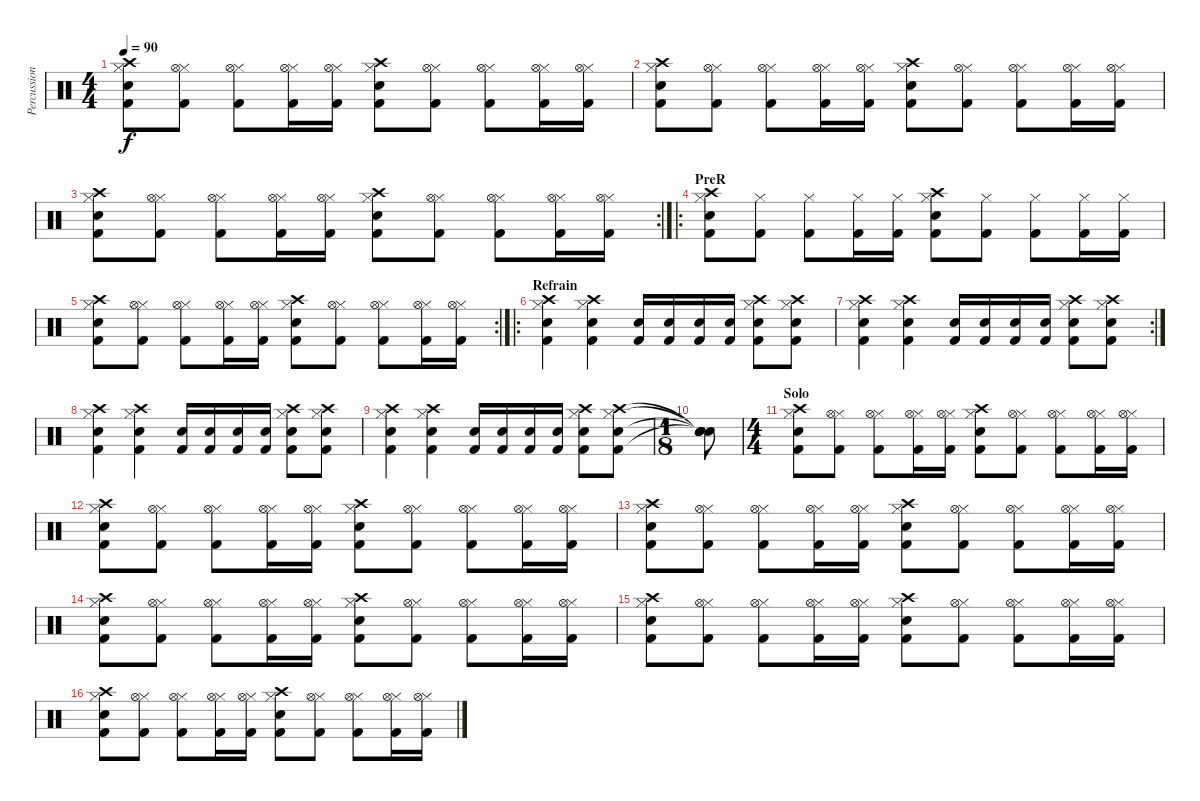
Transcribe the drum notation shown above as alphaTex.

\track ("Percussions" "Percussion") {instrument percussion}
\staff {score}
\articulation defaults
\ts (4 4)
\tempo 90
\clef neutral
\ks c
("Kick (hit) 2" "Hi-Hat (closed)" "Snare (hit) 2" "Crash high (hit)").8{dy f} ("Kick (hit) 2" "Hi-Hat (closed)" "Hi-Hat (open)").8 ("Kick (hit) 2" "Hi-Hat (closed)" "Hi-Hat (open)").8 ("Kick (hit) 2" "Hi-Hat (closed)" "Hi-Hat (open)").16 ("Kick (hit) 2" "Hi-Hat (closed)" "Hi-Hat (open)").16 ("Kick (hit) 2" "Hi-Hat (closed)" "Snare (hit) 2" "Crash high (hit)").8 ("Kick (hit) 2" "Hi-Hat (closed)" "Hi-Hat (open)").8 ("Kick (hit) 2" "Hi-Hat (closed)" "Hi-Hat (open)").8 ("Hi-Hat (closed)" "Kick (hit) 2" "Hi-Hat (open)").16 ("Hi-Hat (closed)" "Kick (hit) 2" "Hi-Hat (open)").16 |
("Kick (hit) 2" "Hi-Hat (closed)" "Snare (hit) 2" "Crash high (hit)").8 ("Kick (hit) 2" "Hi-Hat (closed)" "Hi-Hat (open)").8 ("Kick (hit) 2" "Hi-Hat (closed)" "Hi-Hat (open)").8 ("Kick (hit) 2" "Hi-Hat (closed)" "Hi-Hat (open)").16 ("Kick (hit) 2" "Hi-Hat (closed)" "Hi-Hat (open)").16 ("Kick (hit) 2" "Hi-Hat (closed)" "Snare (hit) 2" "Crash high (hit)").8 ("Kick (hit) 2" "Hi-Hat (closed)" "Hi-Hat (open)").8 ("Kick (hit) 2" "Hi-Hat (closed)" "Hi-Hat (open)").8 ("Hi-Hat (closed)" "Kick (hit) 2" "Hi-Hat (open)").16 ("Hi-Hat (closed)" "Kick (hit) 2" "Hi-Hat (open)").16 |
\rc 2
("Kick (hit) 2" "Hi-Hat (closed)" "Snare (hit) 2" "Crash high (hit)").8 ("Kick (hit) 2" "Hi-Hat (closed)" "Hi-Hat (open)").8 ("Kick (hit) 2" "Hi-Hat (closed)" "Hi-Hat (open)").8 ("Kick (hit) 2" "Hi-Hat (closed)" "Hi-Hat (open)").16 ("Kick (hit) 2" "Hi-Hat (closed)" "Hi-Hat (open)").16 ("Kick (hit) 2" "Hi-Hat (closed)" "Snare (hit) 2" "Crash high (hit)").8 ("Kick (hit) 2" "Hi-Hat (closed)" "Hi-Hat (open)").8 ("Kick (hit) 2" "Hi-Hat (closed)" "Hi-Hat (open)").8 ("Hi-Hat (closed)" "Kick (hit) 2" "Hi-Hat (open)").16 ("Hi-Hat (closed)" "Kick (hit) 2" "Hi-Hat (open)").16 |
\ro
\section ("" "PreR")
("Kick (hit) 2" "Hi-Hat (closed)" "Snare (hit) 2" "Crash high (hit)").8 ("Kick (hit) 2" "Hi-Hat (closed)").8 ("Kick (hit) 2" "Hi-Hat (closed)").8 ("Kick (hit) 2" "Hi-Hat (closed)").16 ("Kick (hit) 2" "Hi-Hat (closed)").16 ("Kick (hit) 2" "Hi-Hat (closed)" "Snare (hit) 2" "Crash high (hit)").8 ("Kick (hit) 2" "Hi-Hat (closed)").8 ("Kick (hit) 2" "Hi-Hat (closed)").8 ("Hi-Hat (closed)" "Kick (hit) 2").16 ("Hi-Hat (closed)" "Kick (hit) 2").16 |
\rc 2
("Kick (hit) 2" "Hi-Hat (closed)" "Snare (hit) 2" "Crash high (hit)").8 ("Kick (hit) 2" "Hi-Hat (closed)" "Hi-Hat (open)").8 ("Kick (hit) 2" "Hi-Hat (closed)" "Hi-Hat (open)").8 ("Kick (hit) 2" "Hi-Hat (closed)" "Hi-Hat (open)").16 ("Kick (hit) 2" "Hi-Hat (closed)" "Hi-Hat (open)").16 ("Kick (hit) 2" "Hi-Hat (closed)" "Snare (hit) 2" "Crash high (hit)").8 ("Kick (hit) 2" "Hi-Hat (closed)" "Hi-Hat (open)").8 ("Kick (hit) 2" "Hi-Hat (closed)" "Hi-Hat (open)").8 ("Hi-Hat (closed)" "Kick (hit) 2" "Hi-Hat (open)").16 ("Hi-Hat (closed)" "Kick (hit) 2" "Hi-Hat (open)").16 |
\ro
\section ("" "Refrain")
("Kick (hit) 2" "Hi-Hat (closed)" "Snare (hit) 2" "Crash high (hit)").4 ("Kick (hit) 2" "Hi-Hat (closed)" "Snare (hit) 2" "Crash high (hit)").4 ("Kick (hit) 2" "Snare (hit) 2").16 ("Kick (hit) 2" "Snare (hit) 2").16 ("Kick (hit) 2" "Snare (hit) 2").16 ("Kick (hit) 2" "Snare (hit) 2").16 ("Kick (hit) 2" "Hi-Hat (closed)" "Snare (hit) 2" "Crash high (hit)").8 ("Kick (hit) 2" "Hi-Hat (closed)" "Snare (hit) 2" "Crash high (hit)").8 |
\rc 2
("Kick (hit) 2" "Hi-Hat (closed)" "Snare (hit) 2" "Crash high (hit)").4 ("Kick (hit) 2" "Hi-Hat (closed)" "Snare (hit) 2" "Crash high (hit)").4 ("Kick (hit) 2" "Snare (hit) 2").16 ("Kick (hit) 2" "Snare (hit) 2").16 ("Kick (hit) 2" "Snare (hit) 2").16 ("Kick (hit) 2" "Snare (hit) 2").16 ("Kick (hit) 2" "Hi-Hat (closed)" "Snare (hit) 2" "Crash high (hit)").8 ("Kick (hit) 2" "Hi-Hat (closed)" "Snare (hit) 2" "Crash high (hit)").8 |
("Kick (hit) 2" "Hi-Hat (closed)" "Snare (hit) 2" "Crash high (hit)").4 ("Kick (hit) 2" "Hi-Hat (closed)" "Snare (hit) 2" "Crash high (hit)").4 ("Kick (hit) 2" "Snare (hit) 2").16 ("Kick (hit) 2" "Snare (hit) 2").16 ("Kick (hit) 2" "Snare (hit) 2").16 ("Kick (hit) 2" "Snare (hit) 2").16 ("Kick (hit) 2" "Hi-Hat (closed)" "Snare (hit) 2" "Crash high (hit)").8 ("Kick (hit) 2" "Hi-Hat (closed)" "Snare (hit) 2" "Crash high (hit)").8 |
("Kick (hit) 2" "Hi-Hat (closed)" "Snare (hit) 2" "Crash high (hit)").4 ("Kick (hit) 2" "Hi-Hat (closed)" "Snare (hit) 2" "Crash high (hit)").4 ("Kick (hit) 2" "Snare (hit) 2").16 ("Kick (hit) 2" "Snare (hit) 2").16 ("Kick (hit) 2" "Snare (hit) 2").16 ("Kick (hit) 2" "Snare (hit) 2").16 ("Kick (hit) 2" "Hi-Hat (closed)" "Snare (hit) 2" "Crash high (hit)").8 ("Kick (hit) 2" "Hi-Hat (closed)" "Snare (hit) 2" "Crash high (hit)").8 |
\ts (1 8)
("Snare (hit)"{t} "Snare (hit)"{t} "Snare (hit)"{t} "Snare (hit)"{t}).8 |
\ts (4 4)
\section ("" "Solo")
("Kick (hit) 2" "Hi-Hat (closed)" "Snare (hit) 2" "Crash high (hit)").8 ("Kick (hit) 2" "Hi-Hat (closed)" "Hi-Hat (open)").8 ("Kick (hit) 2" "Hi-Hat (closed)" "Hi-Hat (open)").8 ("Kick (hit) 2" "Hi-Hat (closed)" "Hi-Hat (open)").16 ("Kick (hit) 2" "Hi-Hat (closed)" "Hi-Hat (open)").16 ("Kick (hit) 2" "Hi-Hat (closed)" "Snare (hit) 2" "Crash high (hit)").8 ("Kick (hit) 2" "Hi-Hat (closed)" "Hi-Hat (open)").8 ("Kick (hit) 2" "Hi-Hat (closed)" "Hi-Hat (open)").8 ("Hi-Hat (closed)" "Kick (hit) 2" "Hi-Hat (open)").16 ("Hi-Hat (closed)" "Kick (hit) 2" "Hi-Hat (open)").16 |
("Kick (hit) 2" "Hi-Hat (closed)" "Snare (hit) 2" "Crash high (hit)").8 ("Kick (hit) 2" "Hi-Hat (closed)" "Hi-Hat (open)").8 ("Kick (hit) 2" "Hi-Hat (closed)" "Hi-Hat (open)").8 ("Kick (hit) 2" "Hi-Hat (closed)" "Hi-Hat (open)").16 ("Kick (hit) 2" "Hi-Hat (closed)" "Hi-Hat (open)").16 ("Kick (hit) 2" "Hi-Hat (closed)" "Snare (hit) 2" "Crash high (hit)").8 ("Kick (hit) 2" "Hi-Hat (closed)" "Hi-Hat (open)").8 ("Kick (hit) 2" "Hi-Hat (closed)" "Hi-Hat (open)").8 ("Hi-Hat (closed)" "Kick (hit) 2" "Hi-Hat (open)").16 ("Hi-Hat (closed)" "Kick (hit) 2" "Hi-Hat (open)").16 |
("Kick (hit) 2" "Hi-Hat (closed)" "Snare (hit) 2" "Crash high (hit)").8 ("Kick (hit) 2" "Hi-Hat (closed)" "Hi-Hat (open)").8 ("Kick (hit) 2" "Hi-Hat (closed)" "Hi-Hat (open)").8 ("Kick (hit) 2" "Hi-Hat (closed)" "Hi-Hat (open)").16 ("Kick (hit) 2" "Hi-Hat (closed)" "Hi-Hat (open)").16 ("Kick (hit) 2" "Hi-Hat (closed)" "Snare (hit) 2" "Crash high (hit)").8 ("Kick (hit) 2" "Hi-Hat (closed)" "Hi-Hat (open)").8 ("Kick (hit) 2" "Hi-Hat (closed)" "Hi-Hat (open)").8 ("Hi-Hat (closed)" "Kick (hit) 2" "Hi-Hat (open)").16 ("Hi-Hat (closed)" "Kick (hit) 2" "Hi-Hat (open)").16 |
("Kick (hit) 2" "Hi-Hat (closed)" "Snare (hit) 2" "Crash high (hit)").8 ("Kick (hit) 2" "Hi-Hat (closed)" "Hi-Hat (open)").8 ("Kick (hit) 2" "Hi-Hat (closed)" "Hi-Hat (open)").8 ("Kick (hit) 2" "Hi-Hat (closed)" "Hi-Hat (open)").16 ("Kick (hit) 2" "Hi-Hat (closed)" "Hi-Hat (open)").16 ("Kick (hit) 2" "Hi-Hat (closed)" "Snare (hit) 2" "Crash high (hit)").8 ("Kick (hit) 2" "Hi-Hat (closed)" "Hi-Hat (open)").8 ("Kick (hit) 2" "Hi-Hat (closed)" "Hi-Hat (open)").8 ("Hi-Hat (closed)" "Kick (hit) 2" "Hi-Hat (open)").16 ("Hi-Hat (closed)" "Kick (hit) 2" "Hi-Hat (open)").16 |
("Kick (hit) 2" "Hi-Hat (closed)" "Snare (hit) 2" "Crash high (hit)").8 ("Kick (hit) 2" "Hi-Hat (closed)" "Hi-Hat (open)").8 ("Kick (hit) 2" "Hi-Hat (closed)" "Hi-Hat (open)").8 ("Kick (hit) 2" "Hi-Hat (closed)" "Hi-Hat (open)").16 ("Kick (hit) 2" "Hi-Hat (closed)" "Hi-Hat (open)").16 ("Kick (hit) 2" "Hi-Hat (closed)" "Snare (hit) 2" "Crash high (hit)").8 ("Kick (hit) 2" "Hi-Hat (closed)" "Hi-Hat (open)").8 ("Kick (hit) 2" "Hi-Hat (closed)" "Hi-Hat (open)").8 ("Hi-Hat (closed)" "Kick (hit) 2" "Hi-Hat (open)").16 ("Hi-Hat (closed)" "Kick (hit) 2" "Hi-Hat (open)").16 |
("Kick (hit) 2" "Hi-Hat (closed)" "Snare (hit) 2" "Crash high (hit)").8 ("Kick (hit) 2" "Hi-Hat (closed)" "Hi-Hat (open)").8 ("Kick (hit) 2" "Hi-Hat (closed)" "Hi-Hat (open)").8 ("Kick (hit) 2" "Hi-Hat (closed)" "Hi-Hat (open)").16 ("Kick (hit) 2" "Hi-Hat (closed)" "Hi-Hat (open)").16 ("Kick (hit) 2" "Hi-Hat (closed)" "Snare (hit) 2" "Crash high (hit)").8 ("Kick (hit) 2" "Hi-Hat (closed)" "Hi-Hat (open)").8 ("Kick (hit) 2" "Hi-Hat (closed)" "Hi-Hat (open)").8 ("Hi-Hat (closed)" "Kick (hit) 2" "Hi-Hat (open)").16 ("Hi-Hat (closed)" "Kick (hit) 2" "Hi-Hat (open)").16
